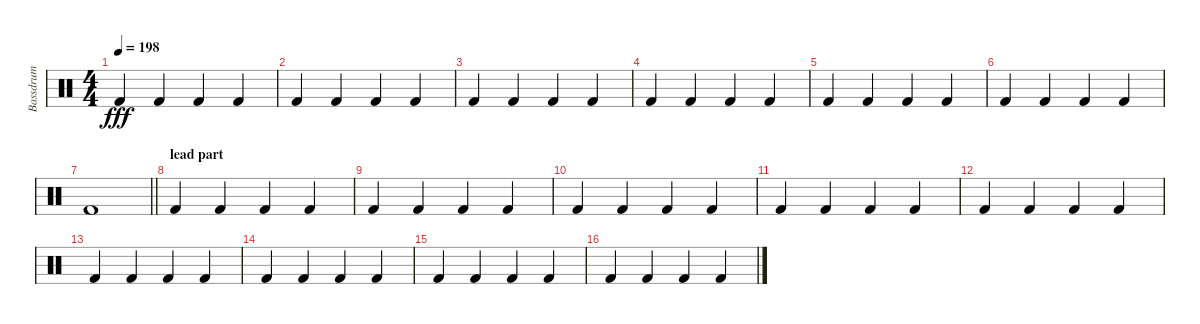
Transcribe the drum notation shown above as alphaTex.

\track ("Bassdrum" "Bassdrum") {instrument percussion}
\staff {score}
\articulation defaults
\ts (4 4)
\tempo 198
\clef neutral
\ks c "Kick (hit) 2".4{dy fff} "Kick (hit) 2".4 "Kick (hit) 2".4 "Kick (hit) 2".4
|
"Kick (hit) 2".4 "Kick (hit) 2".4 "Kick (hit) 2".4 "Kick (hit) 2".4 |
"Kick (hit) 2".4 "Kick (hit) 2".4 "Kick (hit) 2".4 "Kick (hit) 2".4 |
"Kick (hit) 2".4 "Kick (hit) 2".4 "Kick (hit) 2".4 "Kick (hit) 2".4 |
"Kick (hit) 2".4 "Kick (hit) 2".4 "Kick (hit) 2".4 "Kick (hit) 2".4 |
"Kick (hit) 2".4 "Kick (hit) 2".4 "Kick (hit) 2".4 "Kick (hit) 2".4 |
\barLineRight lightlight "Kick (hit) 2".1
|
\section ("" "lead part")
"Kick (hit) 2".4 "Kick (hit) 2".4 "Kick (hit) 2".4 "Kick (hit) 2".4 |
"Kick (hit) 2".4 "Kick (hit) 2".4 "Kick (hit) 2".4 "Kick (hit) 2".4 |
"Kick (hit) 2".4 "Kick (hit) 2".4 "Kick (hit) 2".4 "Kick (hit) 2".4 |
"Kick (hit) 2".4 "Kick (hit) 2".4 "Kick (hit) 2".4 "Kick (hit) 2".4 |
"Kick (hit) 2".4 "Kick (hit) 2".4 "Kick (hit) 2".4 "Kick (hit) 2".4 |
"Kick (hit) 2".4 "Kick (hit) 2".4 "Kick (hit) 2".4 "Kick (hit) 2".4 |
"Kick (hit) 2".4 "Kick (hit) 2".4 "Kick (hit) 2".4 "Kick (hit) 2".4 |
"Kick (hit) 2".4 "Kick (hit) 2".4 "Kick (hit) 2".4 "Kick (hit) 2".4 |
"Kick (hit) 2".4 "Kick (hit) 2".4 "Kick (hit) 2".4 "Kick (hit) 2".4
